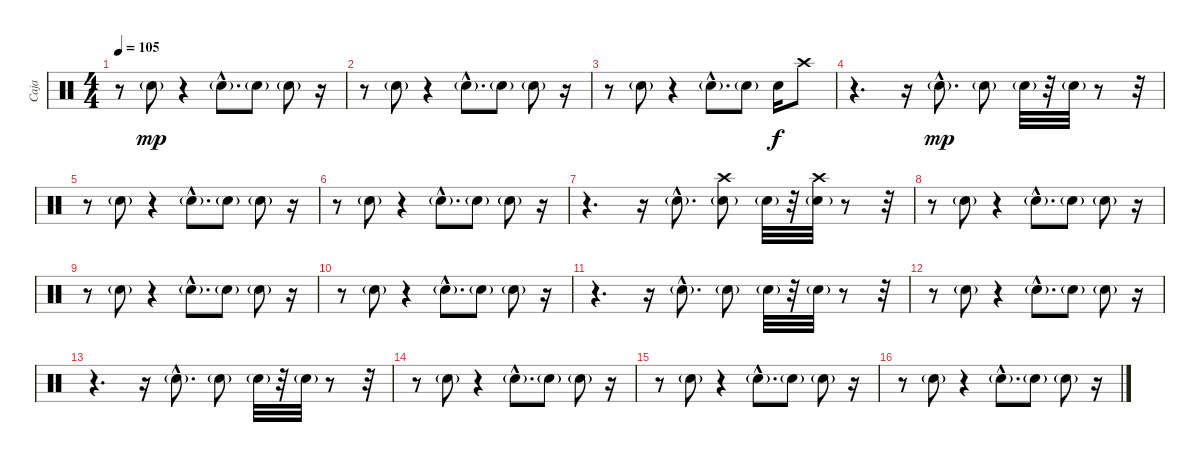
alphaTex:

\track ("Caja" "Caja") {instrument percussion}
\staff {score}
\articulation defaults
\ts (4 4)
\tempo 105
\clef neutral
\ks c
r.8{dy mp} "Electric Snare (hit)"{g}.8 r.4 "Electric Snare (hit)"{g hac}.8{d} "Electric Snare (hit)"{g}.8 "Electric Snare (hit)"{g}.8 r.16 |
r.8 "Electric Snare (hit)"{g}.8 r.4 "Electric Snare (hit)"{g hac}.8{d} "Electric Snare (hit)"{g}.8 "Electric Snare (hit)"{g}.8 r.16 |
r.8 "Electric Snare (hit)"{g}.8 r.4 "Electric Snare (hit)"{g hac}.8{d} "Electric Snare (hit)"{g}.8 "Electric Snare (hit)".16{dy f} "Crash high (hit)".8 |
r.4{d} r.16 "Electric Snare (hit)"{g hac}.8{d dy mp} "Electric Snare (hit)"{g}.8 "Electric Snare (hit)"{g}.32 r.32 "Electric Snare (hit)"{g}.32 r.8 r.32 |
r.8 "Electric Snare (hit)"{g}.8 r.4 "Electric Snare (hit)"{g hac}.8{d} "Electric Snare (hit)"{g}.8 "Electric Snare (hit)"{g}.8 r.16 |
r.8 "Electric Snare (hit)"{g}.8 r.4 "Electric Snare (hit)"{g hac}.8{d} "Electric Snare (hit)"{g}.8 "Electric Snare (hit)"{g}.8 r.16 |
r.4{d} r.16 "Electric Snare (hit)"{g hac}.8{d} ("Electric Snare (hit)"{g} "Crash high (hit)").8 "Electric Snare (hit)"{g}.32 r.32 ("Electric Snare (hit)"{g} "Crash high (hit)").32 r.8 r.32 |
r.8 "Electric Snare (hit)"{g}.8 r.4 "Electric Snare (hit)"{g hac}.8{d} "Electric Snare (hit)"{g}.8 "Electric Snare (hit)"{g}.8 r.16 |
r.8 "Electric Snare (hit)"{g}.8 r.4 "Electric Snare (hit)"{g hac}.8{d} "Electric Snare (hit)"{g}.8 "Electric Snare (hit)"{g}.8 r.16 |
r.8 "Electric Snare (hit)"{g}.8 r.4 "Electric Snare (hit)"{g hac}.8{d} "Electric Snare (hit)"{g}.8 "Electric Snare (hit)"{g}.8 r.16 |
r.4{d} r.16 "Electric Snare (hit)"{g hac}.8{d} "Electric Snare (hit)"{g}.8 "Electric Snare (hit)"{g}.32 r.32 "Electric Snare (hit)"{g}.32 r.8 r.32 |
r.8 "Electric Snare (hit)"{g}.8 r.4 "Electric Snare (hit)"{g hac}.8{d} "Electric Snare (hit)"{g}.8 "Electric Snare (hit)"{g}.8 r.16 |
r.4{d} r.16 "Electric Snare (hit)"{g hac}.8{d} "Electric Snare (hit)"{g}.8 "Electric Snare (hit)"{g}.32 r.32 "Electric Snare (hit)"{g}.32 r.8 r.32 |
r.8 "Electric Snare (hit)"{g}.8 r.4 "Electric Snare (hit)"{g hac}.8{d} "Electric Snare (hit)"{g}.8 "Electric Snare (hit)"{g}.8 r.16 |
r.8 "Electric Snare (hit)"{g}.8 r.4 "Electric Snare (hit)"{g hac}.8{d} "Electric Snare (hit)"{g}.8 "Electric Snare (hit)"{g}.8 r.16 |
r.8 "Electric Snare (hit)"{g}.8 r.4 "Electric Snare (hit)"{g hac}.8{d} "Electric Snare (hit)"{g}.8 "Electric Snare (hit)"{g}.8 r.16
